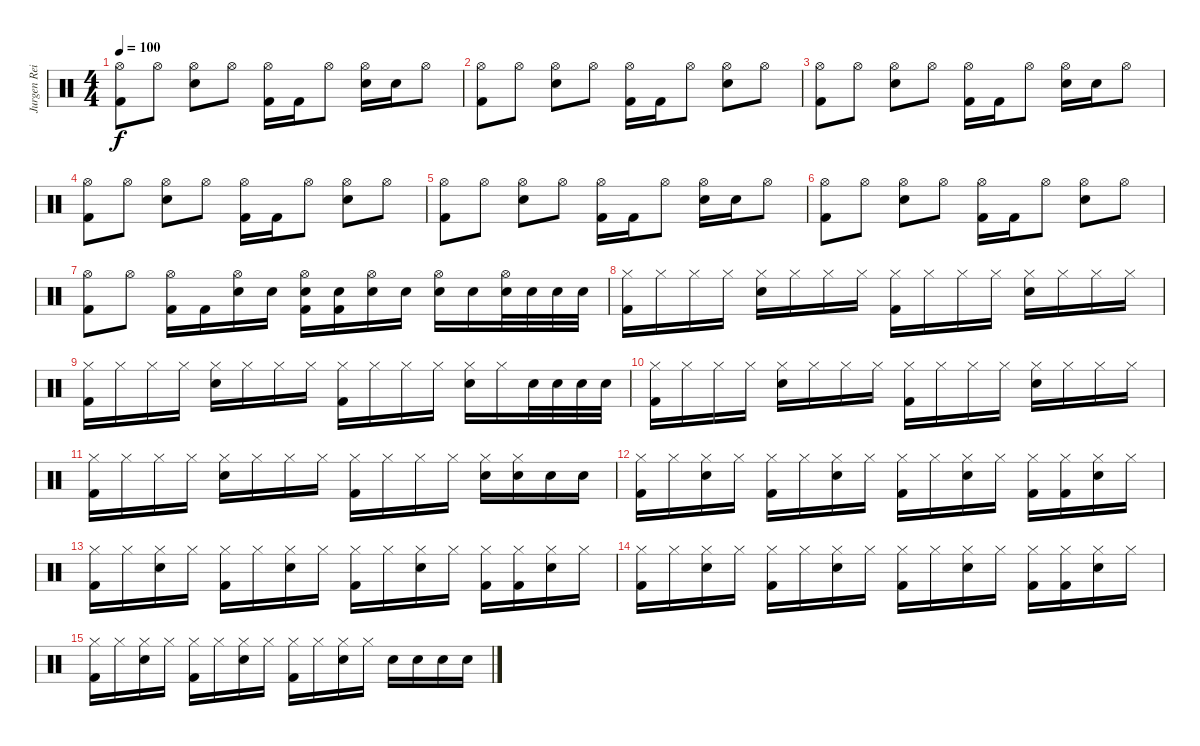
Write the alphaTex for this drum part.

\track ("Jurgen Reil" "Jurgen Rei") {instrument percussion}
\staff {score}
\articulation defaults
\ts (4 4)
\tempo 100
\clef neutral
\ks c
("Kick (hit) 2" "Hi-Hat (open)").8{dy f} "Hi-Hat (open)".8 ("Hi-Hat (open)" "Snare (hit) 2").8 "Hi-Hat (open)".8 ("Kick (hit) 2" "Hi-Hat (open)").16 "Kick (hit) 2".16 "Hi-Hat (open)".8 ("Snare (hit) 2" "Hi-Hat (open)").16 "Snare (hit) 2".16 "Hi-Hat (open)".8 |
("Kick (hit) 2" "Hi-Hat (open)").8 "Hi-Hat (open)".8 ("Hi-Hat (open)" "Snare (hit) 2").8 "Hi-Hat (open)".8 ("Kick (hit) 2" "Hi-Hat (open)").16 "Kick (hit) 2".16 "Hi-Hat (open)".8 ("Snare (hit) 2" "Hi-Hat (open)").8 "Hi-Hat (open)".8 |
("Kick (hit) 2" "Hi-Hat (open)").8 "Hi-Hat (open)".8 ("Hi-Hat (open)" "Snare (hit) 2").8 "Hi-Hat (open)".8 ("Kick (hit) 2" "Hi-Hat (open)").16 "Kick (hit) 2".16 "Hi-Hat (open)".8 ("Snare (hit) 2" "Hi-Hat (open)").16 "Snare (hit) 2".16 "Hi-Hat (open)".8 |
("Kick (hit) 2" "Hi-Hat (open)").8 "Hi-Hat (open)".8 ("Hi-Hat (open)" "Snare (hit) 2").8 "Hi-Hat (open)".8 ("Kick (hit) 2" "Hi-Hat (open)").16 "Kick (hit) 2".16 "Hi-Hat (open)".8 ("Snare (hit) 2" "Hi-Hat (open)").8 "Hi-Hat (open)".8 |
("Kick (hit) 2" "Hi-Hat (open)").8 "Hi-Hat (open)".8 ("Hi-Hat (open)" "Snare (hit) 2").8 "Hi-Hat (open)".8 ("Kick (hit) 2" "Hi-Hat (open)").16 "Kick (hit) 2".16 "Hi-Hat (open)".8 ("Snare (hit) 2" "Hi-Hat (open)").16 "Snare (hit) 2".16 "Hi-Hat (open)".8 |
("Kick (hit) 2" "Hi-Hat (open)").8 "Hi-Hat (open)".8 ("Hi-Hat (open)" "Snare (hit) 2").8 "Hi-Hat (open)".8 ("Kick (hit) 2" "Hi-Hat (open)").16 "Kick (hit) 2".16 "Hi-Hat (open)".8 ("Snare (hit) 2" "Hi-Hat (open)").8 "Hi-Hat (open)".8 |
("Kick (hit) 2" "Hi-Hat (open)").8 "Hi-Hat (open)".8 ("Hi-Hat (open)" "Kick (hit) 2").16 "Kick (hit) 2".16 ("Hi-Hat (open)" "Snare (hit) 2").16 "Snare (hit) 2".16 ("Kick (hit) 2" "Hi-Hat (open)" "Snare (hit) 2").16 ("Kick (hit) 2" "Snare (hit) 2").16 ("Hi-Hat (open)" "Snare (hit) 2").16 "Snare (hit) 2".16 ("Hi-Hat (open)" "Snare (hit) 2").16 "Snare (hit) 2".16 ("Hi-Hat (open)" "Snare (hit) 2").32 "Snare (hit) 2".32 "Snare (hit) 2".32 "Snare (hit) 2".32 |
("Kick (hit) 2" "Hi-Hat (closed)").16 "Hi-Hat (closed)".16 "Hi-Hat (closed)".16 "Hi-Hat (closed)".16 ("Snare (hit) 2" "Hi-Hat (closed)").16 "Hi-Hat (closed)".16 "Hi-Hat (closed)".16 "Hi-Hat (closed)".16 ("Kick (hit) 2" "Hi-Hat (closed)").16 "Hi-Hat (closed)".16 "Hi-Hat (closed)".16 "Hi-Hat (closed)".16 ("Snare (hit) 2" "Hi-Hat (closed)").16 "Hi-Hat (closed)".16 "Hi-Hat (closed)".16 "Hi-Hat (closed)".16 |
("Kick (hit) 2" "Hi-Hat (closed)").16 "Hi-Hat (closed)".16 "Hi-Hat (closed)".16 "Hi-Hat (closed)".16 ("Snare (hit) 2" "Hi-Hat (closed)").16 "Hi-Hat (closed)".16 "Hi-Hat (closed)".16 "Hi-Hat (closed)".16 ("Kick (hit) 2" "Hi-Hat (closed)").16 "Hi-Hat (closed)".16 "Hi-Hat (closed)".16 "Hi-Hat (closed)".16 ("Snare (hit) 2" "Hi-Hat (closed)").16 "Hi-Hat (closed)".16 "Snare (hit) 2".32 "Snare (hit) 2".32 "Snare (hit) 2".32 "Snare (hit) 2".32 |
("Kick (hit) 2" "Hi-Hat (closed)").16 "Hi-Hat (closed)".16 "Hi-Hat (closed)".16 "Hi-Hat (closed)".16 ("Snare (hit) 2" "Hi-Hat (closed)").16 "Hi-Hat (closed)".16 "Hi-Hat (closed)".16 "Hi-Hat (closed)".16 ("Kick (hit) 2" "Hi-Hat (closed)").16 "Hi-Hat (closed)".16 "Hi-Hat (closed)".16 "Hi-Hat (closed)".16 ("Snare (hit) 2" "Hi-Hat (closed)").16 "Hi-Hat (closed)".16 "Hi-Hat (closed)".16 "Hi-Hat (closed)".16 |
("Kick (hit) 2" "Hi-Hat (closed)").16 "Hi-Hat (closed)".16 "Hi-Hat (closed)".16 "Hi-Hat (closed)".16 ("Snare (hit) 2" "Hi-Hat (closed)").16 "Hi-Hat (closed)".16 "Hi-Hat (closed)".16 "Hi-Hat (closed)".16 ("Kick (hit) 2" "Hi-Hat (closed)").16 "Hi-Hat (closed)".16 "Hi-Hat (closed)".16 "Hi-Hat (closed)".16 ("Snare (hit) 2" "Hi-Hat (closed)").16 ("Snare (hit) 2" "Hi-Hat (closed)").16 "Snare (hit) 2".16 "Snare (hit) 2".16 |
("Kick (hit) 2" "Hi-Hat (closed)").16 "Hi-Hat (closed)".16 ("Snare (hit) 2" "Hi-Hat (closed)").16 "Hi-Hat (closed)".16 ("Kick (hit) 2" "Hi-Hat (closed)").16 "Hi-Hat (closed)".16 ("Snare (hit) 2" "Hi-Hat (closed)").16 "Hi-Hat (closed)".16 ("Kick (hit) 2" "Hi-Hat (closed)").16 "Hi-Hat (closed)".16 ("Snare (hit) 2" "Hi-Hat (closed)").16 "Hi-Hat (closed)".16 ("Kick (hit) 2" "Hi-Hat (closed)").16 ("Kick (hit) 2" "Hi-Hat (closed)").16 ("Snare (hit) 2" "Hi-Hat (closed)").16 "Hi-Hat (closed)".16 |
("Kick (hit) 2" "Hi-Hat (closed)").16 "Hi-Hat (closed)".16 ("Snare (hit) 2" "Hi-Hat (closed)").16 "Hi-Hat (closed)".16 ("Kick (hit) 2" "Hi-Hat (closed)").16 "Hi-Hat (closed)".16 ("Snare (hit) 2" "Hi-Hat (closed)").16 "Hi-Hat (closed)".16 ("Kick (hit) 2" "Hi-Hat (closed)").16 "Hi-Hat (closed)".16 ("Snare (hit) 2" "Hi-Hat (closed)").16 "Hi-Hat (closed)".16 ("Kick (hit) 2" "Hi-Hat (closed)").16 ("Kick (hit) 2" "Hi-Hat (closed)").16 ("Snare (hit) 2" "Hi-Hat (closed)").16 "Hi-Hat (closed)".16 |
("Kick (hit) 2" "Hi-Hat (closed)").16 "Hi-Hat (closed)".16 ("Snare (hit) 2" "Hi-Hat (closed)").16 "Hi-Hat (closed)".16 ("Kick (hit) 2" "Hi-Hat (closed)").16 "Hi-Hat (closed)".16 ("Snare (hit) 2" "Hi-Hat (closed)").16 "Hi-Hat (closed)".16 ("Kick (hit) 2" "Hi-Hat (closed)").16 "Hi-Hat (closed)".16 ("Snare (hit) 2" "Hi-Hat (closed)").16 "Hi-Hat (closed)".16 ("Kick (hit) 2" "Hi-Hat (closed)").16 ("Kick (hit) 2" "Hi-Hat (closed)").16 ("Snare (hit) 2" "Hi-Hat (closed)").16 "Hi-Hat (closed)".16 |
("Kick (hit) 2" "Hi-Hat (closed)").16 "Hi-Hat (closed)".16 ("Snare (hit) 2" "Hi-Hat (closed)").16 "Hi-Hat (closed)".16 ("Kick (hit) 2" "Hi-Hat (closed)").16 "Hi-Hat (closed)".16 ("Snare (hit) 2" "Hi-Hat (closed)").16 "Hi-Hat (closed)".16 ("Kick (hit) 2" "Hi-Hat (closed)").16 "Hi-Hat (closed)".16 ("Snare (hit) 2" "Hi-Hat (closed)").16 "Hi-Hat (closed)".16 "Snare (hit) 2".16 "Snare (hit) 2".16 "Snare (hit) 2".16 "Snare (hit) 2".16
